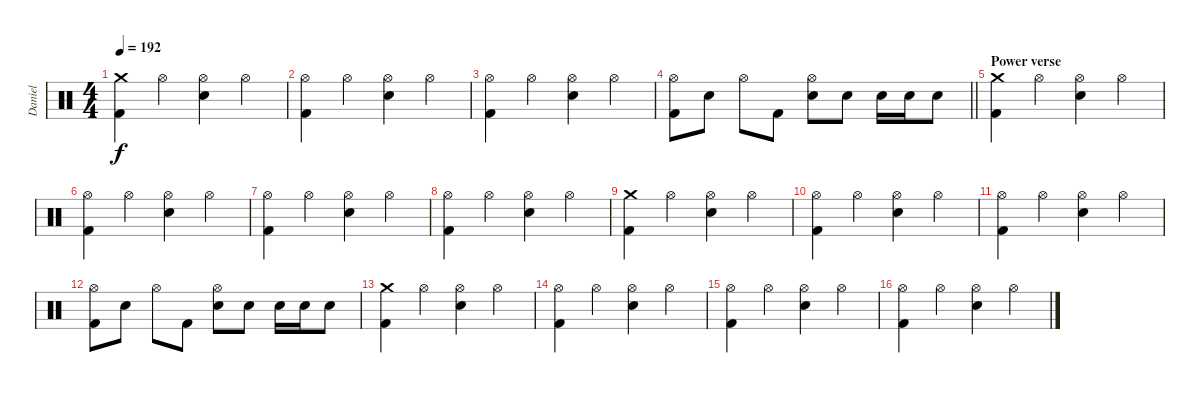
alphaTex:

\track ("Daniel" "Daniel") {instrument percussion}
\staff {score}
\articulation defaults
\ts (4 4)
\tempo 192
\clef neutral
\ks c
("Kick (hit) 2" "Crash medium (hit)").4{dy f} "Hi-Hat (open)".4 ("Electric Snare (hit)" "Hi-Hat (open)").4 "Hi-Hat (open)".4 |
("Kick (hit) 2" "Hi-Hat (open)").4 "Hi-Hat (open)".4 ("Electric Snare (hit)" "Hi-Hat (open)").4 "Hi-Hat (open)".4 |
("Kick (hit) 2" "Hi-Hat (open)").4 "Hi-Hat (open)".4 ("Electric Snare (hit)" "Hi-Hat (open)").4 "Hi-Hat (open)".4 |
\barLineRight lightlight
("Kick (hit) 2" "Hi-Hat (open)").8 "Electric Snare (hit)".8 "Hi-Hat (open)".8 "Kick (hit) 2".8 ("Electric Snare (hit)" "Hi-Hat (open)").8 "Electric Snare (hit)".8 "Electric Snare (hit)".16 "Electric Snare (hit)".16 "Electric Snare (hit)".8 |
\section ("" "Power verse")
("Kick (hit) 2" "Crash medium (hit)").4 "Hi-Hat (open)".4 ("Electric Snare (hit)" "Hi-Hat (open)").4 "Hi-Hat (open)".4 |
("Kick (hit) 2" "Hi-Hat (open)").4 "Hi-Hat (open)".4 ("Electric Snare (hit)" "Hi-Hat (open)").4 "Hi-Hat (open)".4 |
("Kick (hit) 2" "Hi-Hat (open)").4 "Hi-Hat (open)".4 ("Electric Snare (hit)" "Hi-Hat (open)").4 "Hi-Hat (open)".4 |
("Kick (hit) 2" "Hi-Hat (open)").4 "Hi-Hat (open)".4 ("Electric Snare (hit)" "Hi-Hat (open)").4 "Hi-Hat (open)".4 |
("Kick (hit) 2" "Crash medium (hit)").4 "Hi-Hat (open)".4 ("Electric Snare (hit)" "Hi-Hat (open)").4 "Hi-Hat (open)".4 |
("Kick (hit) 2" "Hi-Hat (open)").4 "Hi-Hat (open)".4 ("Electric Snare (hit)" "Hi-Hat (open)").4 "Hi-Hat (open)".4 |
("Kick (hit) 2" "Hi-Hat (open)").4 "Hi-Hat (open)".4 ("Electric Snare (hit)" "Hi-Hat (open)").4 "Hi-Hat (open)".4 |
("Kick (hit) 2" "Hi-Hat (open)").8 "Electric Snare (hit)".8 "Hi-Hat (open)".8 "Kick (hit) 2".8 ("Electric Snare (hit)" "Hi-Hat (open)").8 "Electric Snare (hit)".8 "Electric Snare (hit)".16 "Electric Snare (hit)".16 "Electric Snare (hit)".8 |
("Kick (hit) 2" "Crash medium (hit)").4 "Hi-Hat (open)".4 ("Electric Snare (hit)" "Hi-Hat (open)").4 "Hi-Hat (open)".4 |
("Kick (hit) 2" "Hi-Hat (open)").4 "Hi-Hat (open)".4 ("Electric Snare (hit)" "Hi-Hat (open)").4 "Hi-Hat (open)".4 |
("Kick (hit) 2" "Hi-Hat (open)").4 "Hi-Hat (open)".4 ("Electric Snare (hit)" "Hi-Hat (open)").4 "Hi-Hat (open)".4 |
("Kick (hit) 2" "Hi-Hat (open)").4 "Hi-Hat (open)".4 ("Electric Snare (hit)" "Hi-Hat (open)").4 "Hi-Hat (open)".4
